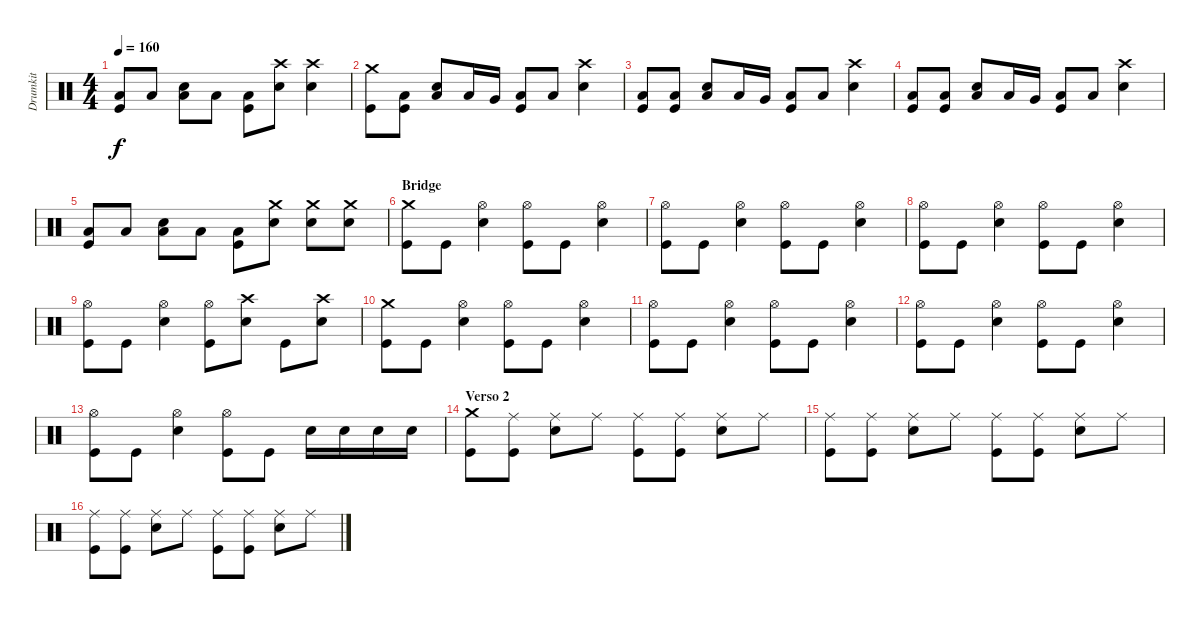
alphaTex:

\track ("Drumkit" "Drumkit") {instrument percussion}
\staff {score}
\articulation defaults
\ts (4 4)
\tempo 160
\clef neutral
\ks c
("Low Floor Tom (hit)" "Kick (hit)").8{dy f} "Low Floor Tom (hit)".8 ("Low Floor Tom (hit)" "Snare (hit) 2").8 "Low Floor Tom (hit)".8 ("Low Floor Tom (hit)" "Kick (hit)").8 ("Crash high (hit)" "Snare (hit) 2").8 ("Crash high (hit)" "Snare (hit) 2").4 |
("Crash medium (hit)" "Kick (hit)").8 ("Low Floor Tom (hit)" "Kick (hit)").8 ("Low Floor Tom (hit)" "Snare (hit) 2").8 "Low Tom (hit)".16 "Very Low Tom (hit)".16 ("Low Floor Tom (hit)" "Kick (hit)").8 "Low Floor Tom (hit)".8 ("Crash high (hit)" "Snare (hit) 2").4 |
("Low Floor Tom (hit)" "Kick (hit)").8 ("Low Floor Tom (hit)" "Kick (hit)").8 ("Low Floor Tom (hit)" "Snare (hit) 2").8 "Low Tom (hit)".16 "Very Low Tom (hit)".16 ("Low Floor Tom (hit)" "Kick (hit)").8 "Low Floor Tom (hit)".8 ("Crash high (hit)" "Snare (hit) 2").4 |
("Low Floor Tom (hit)" "Kick (hit)").8 ("Low Floor Tom (hit)" "Kick (hit)").8 ("Low Floor Tom (hit)" "Snare (hit) 2").8 "Low Tom (hit)".16 "Very Low Tom (hit)".16 ("Low Floor Tom (hit)" "Kick (hit)").8 "Low Floor Tom (hit)".8 ("Crash high (hit)" "Snare (hit) 2").4 |
("Low Floor Tom (hit)" "Kick (hit)").8 "Low Floor Tom (hit)".8 ("Low Floor Tom (hit)" "Snare (hit) 2").8 "Low Floor Tom (hit)".8 ("Low Floor Tom (hit)" "Kick (hit)").8 ("Crash medium (hit)" "Snare (hit) 2").8 ("Crash medium (hit)" "Snare (hit) 2").8 ("Crash medium (hit)" "Snare (hit) 2").8 |
\section ("" "Bridge")
("Crash medium (hit)" "Kick (hit)").8 "Kick (hit)".8 ("Hi-Hat (open)" "Snare (hit) 2").4 ("Hi-Hat (open)" "Kick (hit)").8 "Kick (hit)".8 ("Hi-Hat (open)" "Snare (hit) 2").4 |
("Hi-Hat (open)" "Kick (hit)").8 "Kick (hit)".8 ("Hi-Hat (open)" "Snare (hit) 2").4 ("Hi-Hat (open)" "Kick (hit)").8 "Kick (hit)".8 ("Hi-Hat (open)" "Snare (hit) 2").4 |
("Hi-Hat (open)" "Kick (hit)").8 "Kick (hit)".8 ("Hi-Hat (open)" "Snare (hit) 2").4 ("Hi-Hat (open)" "Kick (hit)").8 "Kick (hit)".8 ("Hi-Hat (open)" "Snare (hit) 2").4 |
("Hi-Hat (open)" "Kick (hit)").8 "Kick (hit)".8 ("Hi-Hat (open)" "Snare (hit) 2").4 ("Hi-Hat (open)" "Kick (hit)").8 ("Crash high (hit)" "Snare (hit) 2").8 "Kick (hit)".8 ("Crash high (hit)" "Snare (hit) 2").8 |
("Crash medium (hit)" "Kick (hit)").8 "Kick (hit)".8 ("Hi-Hat (open)" "Snare (hit) 2").4 ("Hi-Hat (open)" "Kick (hit)").8 "Kick (hit)".8 ("Hi-Hat (open)" "Snare (hit) 2").4 |
("Hi-Hat (open)" "Kick (hit)").8 "Kick (hit)".8 ("Hi-Hat (open)" "Snare (hit) 2").4 ("Hi-Hat (open)" "Kick (hit)").8 "Kick (hit)".8 ("Hi-Hat (open)" "Snare (hit) 2").4 |
("Hi-Hat (open)" "Kick (hit)").8 "Kick (hit)".8 ("Hi-Hat (open)" "Snare (hit) 2").4 ("Hi-Hat (open)" "Kick (hit)").8 "Kick (hit)".8 ("Hi-Hat (open)" "Snare (hit) 2").4 |
("Hi-Hat (open)" "Kick (hit)").8 "Kick (hit)".8 ("Hi-Hat (open)" "Snare (hit) 2").4 ("Hi-Hat (open)" "Kick (hit)").8 "Kick (hit)".8 "Snare (hit) 2".16 "Snare (hit) 2".16 "Snare (hit) 2".16 "Snare (hit) 2".16 |
\section ("" "Verso 2")
("Crash medium (hit)" "Kick (hit)").8 ("Ride (middle)" "Kick (hit)").8 ("Ride (middle)" "Snare (hit) 2").8 "Ride (middle)".8 ("Ride (middle)" "Kick (hit)").8 ("Ride (middle)" "Kick (hit)").8 ("Ride (middle)" "Snare (hit) 2").8 "Ride (middle)".8 |
("Ride (middle)" "Kick (hit)").8 ("Ride (middle)" "Kick (hit)").8 ("Ride (middle)" "Snare (hit) 2").8 "Ride (middle)".8 ("Ride (middle)" "Kick (hit)").8 ("Ride (middle)" "Kick (hit)").8 ("Ride (middle)" "Snare (hit) 2").8 "Ride (middle)".8 |
("Ride (middle)" "Kick (hit)").8 ("Ride (middle)" "Kick (hit)").8 ("Ride (middle)" "Snare (hit) 2").8 "Ride (middle)".8 ("Ride (middle)" "Kick (hit)").8 ("Ride (middle)" "Kick (hit)").8 ("Ride (middle)" "Snare (hit) 2").8 "Ride (middle)".8
